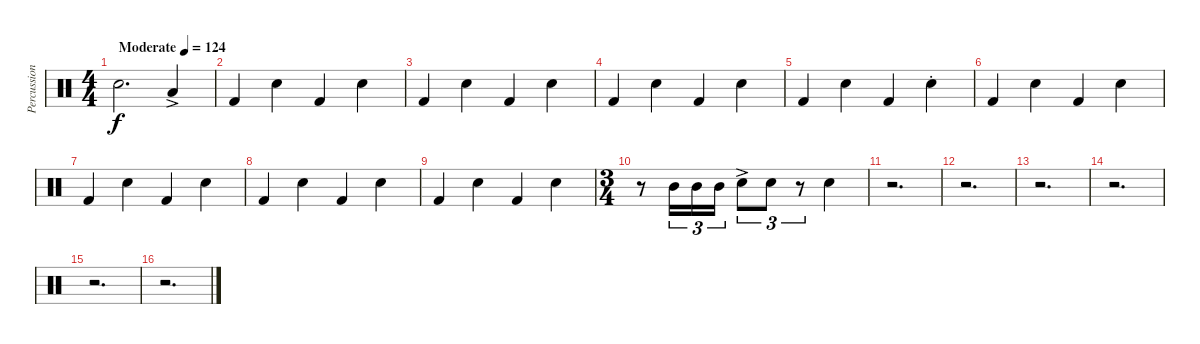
\track ("Percussion" "Percussion") {instrument percussion}
\staff {score}
\articulation defaults
\ts (4 4)
\tempo (124 "Moderate")
\clef neutral
\ks c "Snare (hit) 2".2{d dy f} "Low Floor Tom (hit)"{ac}.4
|
"Kick (hit) 2".4 "Snare (hit) 2".4 "Kick (hit) 2".4 "Snare (hit) 2".4 |
"Kick (hit) 2".4 "Snare (hit) 2".4 "Kick (hit) 2".4 "Snare (hit) 2".4 |
"Kick (hit) 2".4 "Snare (hit) 2".4 "Kick (hit) 2".4 "Snare (hit) 2".4 |
"Kick (hit) 2".4 "Snare (hit) 2".4 "Kick (hit) 2".4 "Snare (hit) 2"{st}.4 |
"Kick (hit) 2".4 "Snare (hit) 2".4 "Kick (hit) 2".4 "Snare (hit) 2".4 |
"Kick (hit) 2".4 "Snare (hit) 2".4 "Kick (hit) 2".4 "Snare (hit) 2".4 |
"Kick (hit) 2".4 "Snare (hit) 2".4 "Kick (hit) 2".4 "Snare (hit) 2".4 |
"Kick (hit) 2".4 "Snare (hit) 2".4 "Kick (hit) 2".4 "Snare (hit) 2".4 |
\ts (3 4)
r.8 "Mid Tom (hit)".16{tu (3 2)} "Mid Tom (hit)".16{tu (3 2)} "Mid Tom (hit)".16{tu (3 2)} "Snare (hit) 2"{ac}.8{tu (3 2)} "Snare (hit) 2".8{tu (3 2)} r.8{tu (3 2)} "Snare (hit) 2".4 |
r.2{d} |
r.2{d} |
r.2{d} |
r.2{d} |
r.2{d} |
r.2{d}
